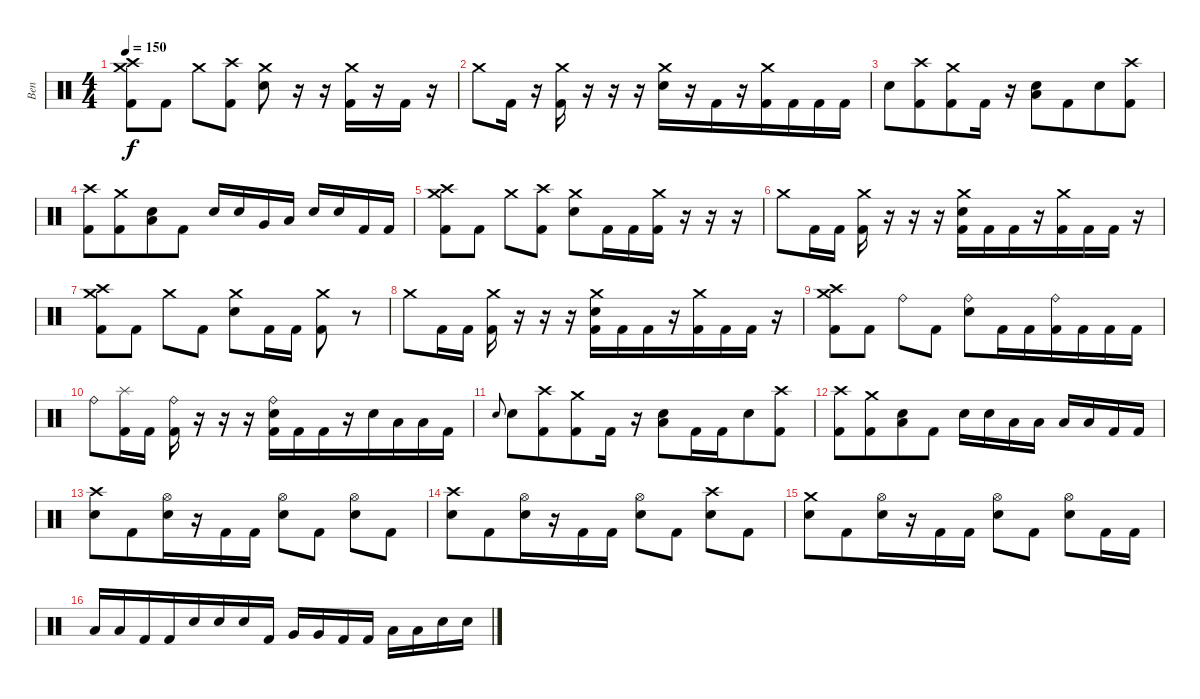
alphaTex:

\track ("Ben" "Ben") {instrument percussion}
\staff {score}
\articulation defaults
\ts (4 4)
\tempo 150
\clef neutral
\ks c
("Kick (hit) 2" "Crash high (hit)" "Crash medium (hit)").8{dy f} "Kick (hit) 2".8 "Crash medium (hit)".8{beam merge} ("Kick (hit) 2" "Crash high (hit)").8 ("Electric Snare (hit)" "Crash medium (hit)").8 r.16{beam merge} r.16{beam merge} ("Kick (hit) 2" "Crash medium (hit)").16 r.16 "Kick (hit) 2".16 r.16 |
"Crash medium (hit)".8 "Kick (hit) 2".16 r.16 ("Crash medium (hit)" "Kick (hit) 2").16 r.16{beam merge} r.16 r.16{beam merge} ("Crash medium (hit)" "Electric Snare (hit)").16{beam merge} r.16 "Kick (hit) 2".16{beam merge} r.16{beam merge} ("Crash medium (hit)" "Kick (hit) 2").16 "Kick (hit) 2".16 "Kick (hit) 2".16{beam merge} "Kick (hit) 2".16 |
"Electric Snare (hit)".8 ("Crash high (hit)" "Kick (hit) 2").8{beam merge} ("Crash medium (hit)" "Kick (hit) 2").8{beam merge} "Kick (hit) 2".16 r.16{beam merge} ("Low Floor Tom (hit)" "Electric Snare (hit)").8{beam merge} "Kick (hit) 2".8{beam merge} "Electric Snare (hit)".8 ("Crash high (hit)" "Kick (hit) 2").8 |
("Crash high (hit)" "Kick (hit) 2").8{beam merge} ("Crash medium (hit)" "Kick (hit) 2").8{beam merge} ("Low Floor Tom (hit)" "Electric Snare (hit)").8{beam merge} "Kick (hit) 2".8 "Electric Snare (hit)".16 "Electric Snare (hit)".16{beam merge} "Very Low Tom (hit)".16{beam merge} "Low Floor Tom (hit)".16 "Electric Snare (hit)".16 "Electric Snare (hit)".16 "Kick (hit) 2".16{beam merge} "Kick (hit) 2".16 |
("Kick (hit) 2" "Crash high (hit)" "Crash medium (hit)").8 "Kick (hit) 2".8 "Crash medium (hit)".8{beam merge} ("Kick (hit) 2" "Crash high (hit)").8 ("Electric Snare (hit)" "Crash medium (hit)").8 "Kick (hit) 2".16{beam merge} "Kick (hit) 2".16{beam merge} ("Kick (hit) 2" "Crash medium (hit)").16 r.16 r.16 r.16 |
"Crash medium (hit)".8 "Kick (hit) 2".16 "Kick (hit) 2".16 ("Crash medium (hit)" "Kick (hit) 2").16 r.16{beam merge} r.16 r.16{beam merge} ("Crash medium (hit)" "Kick (hit) 2" "Electric Snare (hit)").16{beam merge} "Kick (hit) 2".16 "Kick (hit) 2".16{beam merge} r.16{beam merge} ("Crash medium (hit)" "Kick (hit) 2").16 "Kick (hit) 2".16 "Kick (hit) 2".16{beam merge} r.16 |
("Kick (hit) 2" "Crash high (hit)" "Crash medium (hit)").8 "Kick (hit) 2".8 "Crash medium (hit)".8{beam merge} "Kick (hit) 2".8 ("Electric Snare (hit)" "Crash medium (hit)").8 "Kick (hit) 2".16{beam merge} "Kick (hit) 2".16 ("Kick (hit) 2" "Crash medium (hit)").8{beam merge} r.8 |
"Crash medium (hit)".8 "Kick (hit) 2".16 "Kick (hit) 2".16 ("Crash medium (hit)" "Kick (hit) 2").16 r.16{beam merge} r.16 r.16{beam merge} ("Crash medium (hit)" "Kick (hit) 2" "Electric Snare (hit)").16{beam merge} "Kick (hit) 2".16 "Kick (hit) 2".16{beam merge} r.16{beam merge} ("Crash medium (hit)" "Kick (hit) 2").16 "Kick (hit) 2".16 "Kick (hit) 2".16{beam merge} r.16 |
("Kick (hit) 2" "Crash high (hit)" "Crash medium (hit)").8 "Kick (hit) 2".8 "Ride (bell)".8{beam merge} "Kick (hit) 2".8 ("Electric Snare (hit)" "Ride (bell)").8 "Kick (hit) 2".16{beam merge} "Kick (hit) 2".16{beam merge} ("Kick (hit) 2" "Ride (bell)").16 "Kick (hit) 2".16 "Kick (hit) 2".16 "Kick (hit) 2".16 |
"Ride (bell)".8 ("Kick (hit) 2" "Splash (hit)").16 "Kick (hit) 2".16 ("Ride (bell)" "Kick (hit) 2").16 r.16{beam merge} r.16 r.16{beam merge} ("Ride (bell)" "Kick (hit) 2" "Electric Snare (hit)").16{beam merge} "Kick (hit) 2".16 "Kick (hit) 2".16{beam merge} r.16{beam merge} "Electric Snare (hit)".16 "Low Floor Tom (hit)".16 "Low Floor Tom (hit)".16{beam merge} "Kick (hit) 2".16 |
"Electric Snare (hit)".8{gr onbeat beam merge} "Electric Snare (hit)".8 ("Crash high (hit)" "Kick (hit) 2").8{beam merge} ("Crash medium (hit)" "Kick (hit) 2").8{beam merge} "Kick (hit) 2".16 r.16{beam merge} ("Low Floor Tom (hit)" "Electric Snare (hit)").8 "Kick (hit) 2".16{beam merge} "Kick (hit) 2".16{beam merge} "Electric Snare (hit)".8 ("Crash high (hit)" "Kick (hit) 2").8 |
("Crash high (hit)" "Kick (hit) 2").8{beam merge} ("Crash medium (hit)" "Kick (hit) 2").8{beam merge} ("Low Floor Tom (hit)" "Electric Snare (hit)").8{beam merge} "Kick (hit) 2".8 "Electric Snare (hit)".16 "Electric Snare (hit)".16{beam merge} "Low Tom (hit)".16{beam merge} "Low Tom (hit)".16 "Low Floor Tom (hit)".16 "Low Floor Tom (hit)".16 "Kick (hit) 2".16{beam merge} "Kick (hit) 2".16 |
("Electric Snare (hit)" "Crash high (hit)").8 "Kick (hit) 2".8{beam merge} ("Electric Snare (hit)" "Hi-Hat (open)").16 r.16{beam merge} "Kick (hit) 2".16{beam merge} "Kick (hit) 2".16 ("Electric Snare (hit)" "Hi-Hat (open)").8{beam merge} "Kick (hit) 2".8 ("Electric Snare (hit)" "Hi-Hat (open)").8 "Kick (hit) 2".8 |
("Electric Snare (hit)" "Crash high (hit)").8 "Kick (hit) 2".8{beam merge} ("Electric Snare (hit)" "Hi-Hat (open)").16 r.16{beam merge} "Kick (hit) 2".16{beam merge} "Kick (hit) 2".16 ("Electric Snare (hit)" "Hi-Hat (open)").8{beam merge} "Kick (hit) 2".8 ("Electric Snare (hit)" "Crash high (hit)").8 "Kick (hit) 2".8 |
("Electric Snare (hit)" "Crash medium (hit)").8 "Kick (hit) 2".8{beam merge} ("Electric Snare (hit)" "Hi-Hat (open)").16 r.16{beam merge} "Kick (hit) 2".16{beam merge} "Kick (hit) 2".16 ("Electric Snare (hit)" "Hi-Hat (open)").8{beam merge} "Kick (hit) 2".8 ("Electric Snare (hit)" "Hi-Hat (open)").8 "Kick (hit) 2".16{beam merge} "Kick (hit) 2".16 |
"Low Tom (hit)".16{beam merge} "Low Tom (hit)".16 "Kick (hit) 2".16 "Kick (hit) 2".16{beam merge} "Electric Snare (hit)".16 "Electric Snare (hit)".16{beam merge} "Electric Snare (hit)".16 "Kick (hit) 2".16 "Very Low Tom (hit)".16{beam merge} "Very Low Tom (hit)".16 "Kick (hit) 2".16 "Kick (hit) 2".16 "Low Floor Tom (hit)".16{beam merge} "Low Floor Tom (hit)".16 "Electric Snare (hit)".16{beam merge} "Electric Snare (hit)".16
